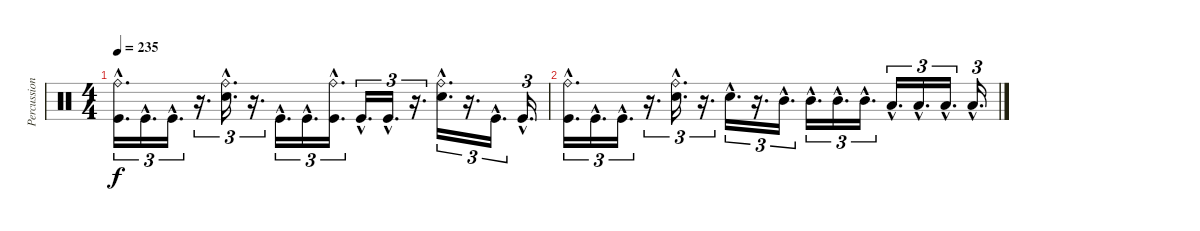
\track ("Percussion" "Percussion") {instrument percussion}
\staff {score}
\articulation defaults
\ts (4 4)
\tempo 235
\clef neutral
\ks c
("Ride (bell)"{hac} "Kick (hit)"{hac}).16{d tu (3 2) dy f} "Kick (hit)"{hac}.16{d tu (3 2)} "Kick (hit)"{hac}.16{d tu (3 2)} r.16{d tu (3 2)} ("Ride (bell)"{hac} "Snare (hit) 2"{hac}).16{d tu (3 2)} r.16{d tu (3 2)} "Kick (hit)"{hac}.16{d tu (3 2)} "Kick (hit)"{hac}.16{d tu (3 2)} ("Ride (bell)"{hac} "Kick (hit)"{hac}).16{d tu (3 2)} "Kick (hit)"{hac}.16{d tu (3 2)} "Kick (hit)"{hac}.16{d tu (3 2)} r.16{d tu (3 2)} ("Ride (bell)"{hac} "Snare (hit) 2"{hac}).16{d tu (3 2)} r.16{d tu (3 2)} "Kick (hit)"{hac}.16{d tu (3 2)} "Kick (hit)"{hac}.16{d tu (3 2)} |
("Ride (bell)"{hac} "Kick (hit)"{hac}).16{d tu (3 2)} "Kick (hit)"{hac}.16{d tu (3 2)} "Kick (hit)"{hac}.16{d tu (3 2)} r.16{d tu (3 2)} ("Ride (bell)"{hac} "Snare (hit) 2"{hac}).16{d tu (3 2)} r.16{d tu (3 2)} "Snare (hit) 2"{hac}.16{d tu (3 2)} r.16{d tu (3 2)} "Mid Tom (hit)"{hac}.16{d tu (3 2)} "Mid Tom (hit)"{hac}.16{d tu (3 2)} "Mid Tom (hit)"{hac}.16{d tu (3 2)} "Mid Tom (hit)"{hac}.16{d tu (3 2)} "Low Tom (hit)"{hac}.16{d tu (3 2)} "Low Tom (hit)"{hac}.16{d tu (3 2)} "Low Tom (hit)"{hac}.16{d tu (3 2)} "Low Tom (hit)"{hac}.16{d tu (3 2)}
